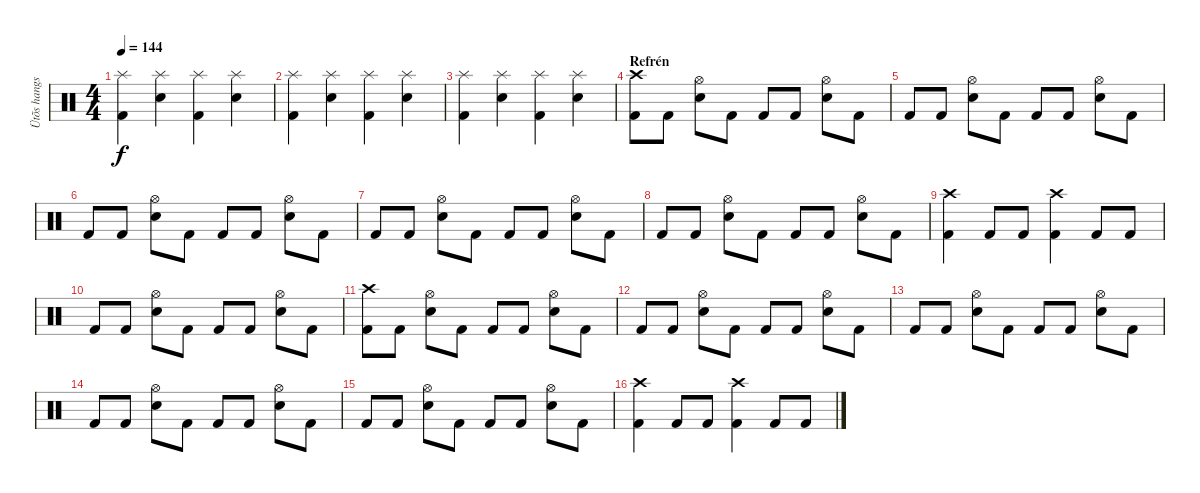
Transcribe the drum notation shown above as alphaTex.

\track ("Ütõs hangszer" "Ütõs hangs") {instrument percussion}
\staff {score}
\articulation defaults
\ts (4 4)
\tempo 144
\clef neutral
\ks c
("Splash (hit)" "Kick (hit) 2").4{dy f} ("Splash (hit)" "Electric Snare (hit)").4 ("Splash (hit)" "Kick (hit) 2").4 ("Splash (hit)" "Electric Snare (hit)").4 |
("Splash (hit)" "Kick (hit) 2").4 ("Splash (hit)" "Electric Snare (hit)").4 ("Splash (hit)" "Kick (hit) 2").4 ("Splash (hit)" "Electric Snare (hit)").4 |
("Splash (hit)" "Kick (hit) 2").4 ("Splash (hit)" "Electric Snare (hit)").4 ("Splash (hit)" "Kick (hit) 2").4 ("Splash (hit)" "Electric Snare (hit)").4 |
\section ("" "Refrén")
("Crash high (hit)" "Kick (hit) 2").8 "Kick (hit) 2".8 ("Hi-Hat (open)" "Electric Snare (hit)").8 "Kick (hit) 2".8 "Kick (hit) 2".8 "Kick (hit) 2".8 ("Hi-Hat (open)" "Electric Snare (hit)").8 "Kick (hit) 2".8 |
"Kick (hit) 2".8 "Kick (hit) 2".8 ("Hi-Hat (open)" "Electric Snare (hit)").8 "Kick (hit) 2".8 "Kick (hit) 2".8 "Kick (hit) 2".8 ("Hi-Hat (open)" "Electric Snare (hit)").8 "Kick (hit) 2".8 |
"Kick (hit) 2".8 "Kick (hit) 2".8 ("Hi-Hat (open)" "Electric Snare (hit)").8 "Kick (hit) 2".8 "Kick (hit) 2".8 "Kick (hit) 2".8 ("Hi-Hat (open)" "Electric Snare (hit)").8 "Kick (hit) 2".8 |
"Kick (hit) 2".8 "Kick (hit) 2".8 ("Hi-Hat (open)" "Electric Snare (hit)").8 "Kick (hit) 2".8 "Kick (hit) 2".8 "Kick (hit) 2".8 ("Hi-Hat (open)" "Electric Snare (hit)").8 "Kick (hit) 2".8 |
"Kick (hit) 2".8 "Kick (hit) 2".8 ("Hi-Hat (open)" "Electric Snare (hit)").8 "Kick (hit) 2".8 "Kick (hit) 2".8 "Kick (hit) 2".8 ("Hi-Hat (open)" "Electric Snare (hit)").8 "Kick (hit) 2".8 |
("Crash high (hit)" "Kick (hit) 2").4 "Kick (hit) 2".8 "Kick (hit) 2".8 ("Crash high (hit)" "Kick (hit) 2").4 "Kick (hit) 2".8 "Kick (hit) 2".8 |
"Kick (hit) 2".8 "Kick (hit) 2".8 ("Hi-Hat (open)" "Electric Snare (hit)").8 "Kick (hit) 2".8 "Kick (hit) 2".8 "Kick (hit) 2".8 ("Hi-Hat (open)" "Electric Snare (hit)").8 "Kick (hit) 2".8 |
("Crash high (hit)" "Kick (hit) 2").8 "Kick (hit) 2".8 ("Hi-Hat (open)" "Electric Snare (hit)").8 "Kick (hit) 2".8 "Kick (hit) 2".8 "Kick (hit) 2".8 ("Hi-Hat (open)" "Electric Snare (hit)").8 "Kick (hit) 2".8 |
"Kick (hit) 2".8 "Kick (hit) 2".8 ("Hi-Hat (open)" "Electric Snare (hit)").8 "Kick (hit) 2".8 "Kick (hit) 2".8 "Kick (hit) 2".8 ("Hi-Hat (open)" "Electric Snare (hit)").8 "Kick (hit) 2".8 |
"Kick (hit) 2".8 "Kick (hit) 2".8 ("Hi-Hat (open)" "Electric Snare (hit)").8 "Kick (hit) 2".8 "Kick (hit) 2".8 "Kick (hit) 2".8 ("Hi-Hat (open)" "Electric Snare (hit)").8 "Kick (hit) 2".8 |
"Kick (hit) 2".8 "Kick (hit) 2".8 ("Hi-Hat (open)" "Electric Snare (hit)").8 "Kick (hit) 2".8 "Kick (hit) 2".8 "Kick (hit) 2".8 ("Hi-Hat (open)" "Electric Snare (hit)").8 "Kick (hit) 2".8 |
"Kick (hit) 2".8 "Kick (hit) 2".8 ("Hi-Hat (open)" "Electric Snare (hit)").8 "Kick (hit) 2".8 "Kick (hit) 2".8 "Kick (hit) 2".8 ("Hi-Hat (open)" "Electric Snare (hit)").8 "Kick (hit) 2".8 |
("Crash high (hit)" "Kick (hit) 2").4 "Kick (hit) 2".8 "Kick (hit) 2".8 ("Crash high (hit)" "Kick (hit) 2").4 "Kick (hit) 2".8 "Kick (hit) 2".8
